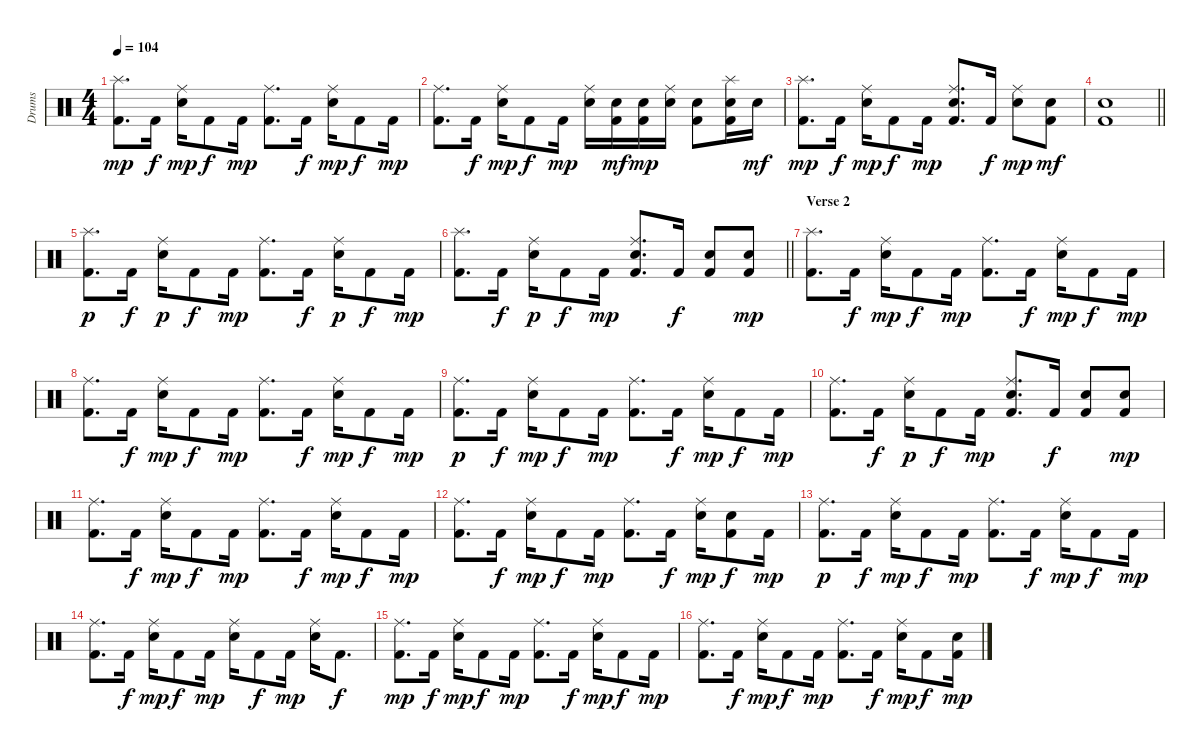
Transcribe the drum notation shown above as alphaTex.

\track ("Drums" "Drums") {instrument percussion}
\staff {score}
\articulation defaults
\ts (4 4)
\tempo 104
\clef neutral
\ks c
("Splash (hit)" "Kick (hit) 2").8{d dy mp} "Kick (hit) 2".16{dy f} ("Ride (middle)" "Electric Snare (hit)").16{dy mp} "Kick (hit) 2".8{dy f} "Kick (hit) 2".16{dy mp} ("Ride (middle)" "Kick (hit) 2").8{d} "Kick (hit) 2".16{dy f} ("Ride (middle)" "Electric Snare (hit)").16{dy mp} "Kick (hit) 2".8{dy f} "Kick (hit) 2".16{dy mp} |
("Ride (middle)" "Kick (hit) 2").8{d} "Kick (hit) 2".16{dy f} ("Ride (middle)" "Electric Snare (hit)").16{dy mp} "Kick (hit) 2".8{dy f} "Kick (hit) 2".16{dy mp} ("Ride (middle)" "Electric Snare (hit)").16 ("Electric Snare (hit)" "Kick (hit) 2").16{dy mf} ("Electric Snare (hit)" "Kick (hit) 2").16{dy mp} ("Ride (middle)" "Electric Snare (hit)").16 ("Electric Snare (hit)" "Kick (hit) 2").8 ("Splash (hit)" "Electric Snare (hit)" "Kick (hit) 2").16 "Electric Snare (hit)".16{dy mf} |
("Splash (hit)" "Kick (hit) 2").8{d dy mp} "Kick (hit) 2".16{dy f} ("Ride (middle)" "Electric Snare (hit)").16{dy mp} "Kick (hit) 2".8{dy f} "Kick (hit) 2".16{dy mp} ("Ride (middle)" "Electric Snare (hit)" "Kick (hit) 2").8{d} "Kick (hit) 2".16{dy f} ("Ride (middle)" "Electric Snare (hit)").8{dy mp} ("Electric Snare (hit)" "Kick (hit) 2").8{dy mf} |
\barLineRight lightlight
("Electric Snare (hit)" "Kick (hit) 2").1 |
("Splash (hit)" "Kick (hit) 2").8{d dy p} "Kick (hit) 2".16{dy f} ("Ride (middle)" "Electric Snare (hit)").16{dy p} "Kick (hit) 2".8{dy f} "Kick (hit) 2".16{dy mp} ("Ride (middle)" "Kick (hit) 2").8{d} "Kick (hit) 2".16{dy f} ("Ride (middle)" "Electric Snare (hit)").16{dy p} "Kick (hit) 2".8{dy f} "Kick (hit) 2".16{dy mp} |
\barLineRight lightlight
("Splash (hit)" "Kick (hit) 2").8{d} "Kick (hit) 2".16{dy f} ("Ride (middle)" "Electric Snare (hit)").16{dy p} "Kick (hit) 2".8{dy f} "Kick (hit) 2".16{dy mp} ("Ride (middle)" "Electric Snare (hit)" "Kick (hit) 2").8{d} "Kick (hit) 2".16{dy f} ("Electric Snare (hit)" "Kick (hit) 2").8 ("Electric Snare (hit)" "Kick (hit) 2").8{dy mp} |
\section ("" "Verse 2")
("Splash (hit)" "Kick (hit) 2").8{d} "Kick (hit) 2".16{dy f} ("Ride (middle)" "Electric Snare (hit)").16{dy mp} "Kick (hit) 2".8{dy f} "Kick (hit) 2".16{dy mp} ("Ride (middle)" "Kick (hit) 2").8{d} "Kick (hit) 2".16{dy f} ("Ride (middle)" "Electric Snare (hit)").16{dy mp} "Kick (hit) 2".8{dy f} "Kick (hit) 2".16{dy mp} |
("Ride (middle)" "Kick (hit) 2").8{d} "Kick (hit) 2".16{dy f} ("Ride (middle)" "Electric Snare (hit)").16{dy mp} "Kick (hit) 2".8{dy f} "Kick (hit) 2".16{dy mp} ("Ride (middle)" "Kick (hit) 2").8{d} "Kick (hit) 2".16{dy f} ("Ride (middle)" "Electric Snare (hit)").16{dy mp} "Kick (hit) 2".8{dy f} "Kick (hit) 2".16{dy mp} |
("Ride (middle)" "Kick (hit) 2").8{d dy p} "Kick (hit) 2".16{dy f} ("Ride (middle)" "Electric Snare (hit)").16{dy mp} "Kick (hit) 2".8{dy f} "Kick (hit) 2".16{dy mp} ("Ride (middle)" "Kick (hit) 2").8{d} "Kick (hit) 2".16{dy f} ("Ride (middle)" "Electric Snare (hit)").16{dy mp} "Kick (hit) 2".8{dy f} "Kick (hit) 2".16{dy mp} |
("Ride (middle)" "Kick (hit) 2").8{d} "Kick (hit) 2".16{dy f} ("Ride (middle)" "Electric Snare (hit)").16{dy p} "Kick (hit) 2".8{dy f} "Kick (hit) 2".16{dy mp} ("Ride (middle)" "Electric Snare (hit)" "Kick (hit) 2").8{d} "Kick (hit) 2".16{dy f} ("Electric Snare (hit)" "Kick (hit) 2").8 ("Electric Snare (hit)" "Kick (hit) 2").8{dy mp} |
("Ride (middle)" "Kick (hit) 2").8{d} "Kick (hit) 2".16{dy f} ("Ride (middle)" "Electric Snare (hit)").16{dy mp} "Kick (hit) 2".8{dy f} "Kick (hit) 2".16{dy mp} ("Ride (middle)" "Kick (hit) 2").8{d} "Kick (hit) 2".16{dy f} ("Ride (middle)" "Electric Snare (hit)").16{dy mp} "Kick (hit) 2".8{dy f} "Kick (hit) 2".16{dy mp} |
("Ride (middle)" "Kick (hit) 2").8{d} "Kick (hit) 2".16{dy f} ("Ride (middle)" "Electric Snare (hit)").16{dy mp} "Kick (hit) 2".8{dy f} "Kick (hit) 2".16{dy mp} ("Ride (middle)" "Kick (hit) 2").8{d} "Kick (hit) 2".16{dy f} ("Ride (middle)" "Electric Snare (hit)").16{dy mp} ("Electric Snare (hit)" "Kick (hit) 2").8{dy f} "Kick (hit) 2".16{dy mp} |
("Ride (middle)" "Kick (hit) 2").8{d dy p} "Kick (hit) 2".16{dy f} ("Ride (middle)" "Electric Snare (hit)").16{dy mp} "Kick (hit) 2".8{dy f} "Kick (hit) 2".16{dy mp} ("Ride (middle)" "Kick (hit) 2").8{d} "Kick (hit) 2".16{dy f} ("Ride (middle)" "Electric Snare (hit)").16{dy mp} "Kick (hit) 2".8{dy f} "Kick (hit) 2".16{dy mp} |
("Ride (middle)" "Kick (hit) 2").8{d} "Kick (hit) 2".16{dy f} ("Ride (middle)" "Electric Snare (hit)").16{dy mp} "Kick (hit) 2".8{dy f} "Kick (hit) 2".16{dy mp} ("Ride (middle)" "Electric Snare (hit)").16 "Kick (hit) 2".8{dy f} "Kick (hit) 2".16{dy mp} ("Ride (middle)" "Electric Snare (hit)").16 "Kick (hit) 2".8{d dy f} |
("Ride (middle)" "Kick (hit) 2").8{d dy mp} "Kick (hit) 2".16{dy f} ("Ride (middle)" "Electric Snare (hit)").16{dy mp} "Kick (hit) 2".8{dy f} "Kick (hit) 2".16{dy mp} ("Ride (middle)" "Kick (hit) 2").8{d} "Kick (hit) 2".16{dy f} ("Ride (middle)" "Electric Snare (hit)").16{dy mp} "Kick (hit) 2".8{dy f} "Kick (hit) 2".16{dy mp} |
("Ride (middle)" "Kick (hit) 2").8{d} "Kick (hit) 2".16{dy f} ("Ride (middle)" "Electric Snare (hit)").16{dy mp} "Kick (hit) 2".8{dy f} "Kick (hit) 2".16{dy mp} ("Ride (middle)" "Kick (hit) 2").8{d} "Kick (hit) 2".16{dy f} ("Ride (middle)" "Electric Snare (hit)").16{dy mp} "Kick (hit) 2".8{dy f} ("Electric Snare (hit)" "Kick (hit) 2").16{dy mp}
